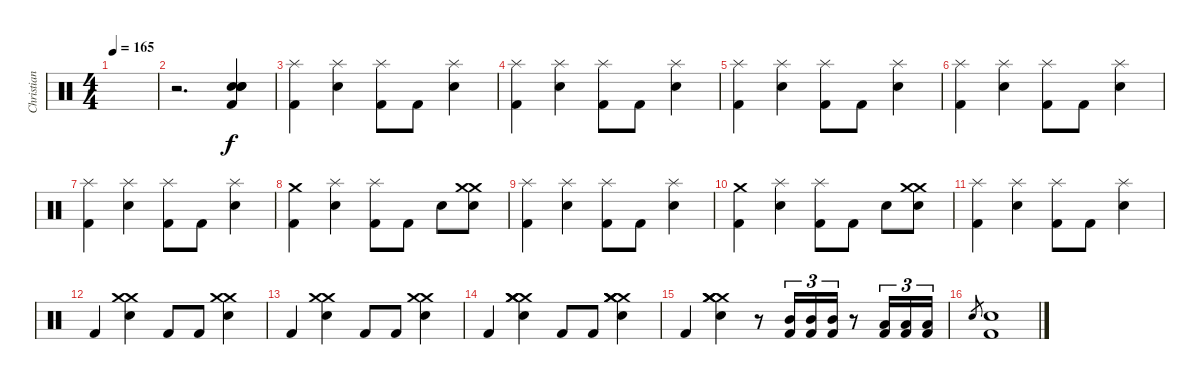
\track ("Christian Batteria" "Christian ") {instrument percussion}
\staff {score}
\articulation defaults
\ts (4 4)
\tempo 165
\clef neutral
\ks c
|
r.2{d} ("Snare (hit) 2" "Snare (hit) 2" "Snare (hit) 2" "Kick (hit) 2").4 |
("Splash (hit)" "Kick (hit) 2").4 ("Splash (hit)" "Snare (hit) 2").4 ("Splash (hit)" "Kick (hit) 2").8 "Kick (hit) 2".8 ("Splash (hit)" "Snare (hit) 2").4 |
("Splash (hit)" "Kick (hit) 2").4 ("Splash (hit)" "Snare (hit) 2").4 ("Splash (hit)" "Kick (hit) 2").8 "Kick (hit) 2".8 ("Splash (hit)" "Snare (hit) 2").4 |
("Splash (hit)" "Kick (hit) 2").4 ("Splash (hit)" "Snare (hit) 2").4 ("Splash (hit)" "Kick (hit) 2").8 "Kick (hit) 2".8 ("Splash (hit)" "Snare (hit) 2").4 |
("Splash (hit)" "Kick (hit) 2").4 ("Splash (hit)" "Snare (hit) 2").4 ("Splash (hit)" "Kick (hit) 2").8 "Kick (hit) 2".8 ("Splash (hit)" "Snare (hit) 2").4 |
("Splash (hit)" "Kick (hit) 2").4 ("Splash (hit)" "Snare (hit) 2").4 ("Splash (hit)" "Kick (hit) 2").8 "Kick (hit) 2".8 ("Splash (hit)" "Snare (hit) 2").4 |
("Crash medium (hit)" "Kick (hit) 2").4 ("Splash (hit)" "Snare (hit) 2").4 ("Splash (hit)" "Kick (hit) 2").8 "Kick (hit) 2".8 "Snare (hit) 2".8 ("Crash medium (hit)" "Crash medium (hit)" "Snare (hit) 2").8 |
("Splash (hit)" "Kick (hit) 2").4 ("Splash (hit)" "Snare (hit) 2").4 ("Splash (hit)" "Kick (hit) 2").8 "Kick (hit) 2".8 ("Splash (hit)" "Snare (hit) 2").4 |
("Crash medium (hit)" "Kick (hit) 2").4 ("Splash (hit)" "Snare (hit) 2").4 ("Splash (hit)" "Kick (hit) 2").8 "Kick (hit) 2".8 "Snare (hit) 2".8 ("Crash medium (hit)" "Crash medium (hit)" "Snare (hit) 2").8 |
("Splash (hit)" "Kick (hit) 2").4 ("Splash (hit)" "Snare (hit) 2").4 ("Splash (hit)" "Kick (hit) 2").8 "Kick (hit) 2".8 ("Splash (hit)" "Snare (hit) 2").4 |
"Kick (hit) 2".4 ("Crash medium (hit)" "Crash medium (hit)" "Snare (hit) 2").4 "Kick (hit) 2".8 "Kick (hit) 2".8 ("Crash medium (hit)" "Crash medium (hit)" "Snare (hit) 2").4 |
"Kick (hit) 2".4 ("Crash medium (hit)" "Crash medium (hit)" "Snare (hit) 2").4 "Kick (hit) 2".8 "Kick (hit) 2".8 ("Crash medium (hit)" "Crash medium (hit)" "Snare (hit) 2").4 |
"Kick (hit) 2".4 ("Crash medium (hit)" "Crash medium (hit)" "Crash medium (hit)" "Crash medium (hit)" "Snare (hit) 2").4 "Kick (hit) 2".8 "Kick (hit) 2".8 ("Crash medium (hit)" "Crash medium (hit)" "Crash medium (hit)" "Crash medium (hit)" "Snare (hit) 2").4 |
"Kick (hit) 2".4 ("Crash medium (hit)" "Crash medium (hit)" "Crash medium (hit)" "Crash medium (hit)" "Snare (hit) 2").4 r.8 ("Mid Tom (hit)" "Kick (hit) 2").16{tu (3 2)} ("Mid Tom (hit)" "Kick (hit) 2").16{tu (3 2)} ("Mid Tom (hit)" "Kick (hit) 2").16{tu (3 2)} r.8 ("Low Tom (hit)" "Kick (hit) 2").16{tu (3 2)} ("Low Tom (hit)" "Kick (hit) 2").16{tu (3 2)} ("Low Tom (hit)" "Kick (hit) 2").16{tu (3 2)} |
"Snare (hit) 2".8{gr} ("Snare (hit) 2" "Kick (hit) 2").1
